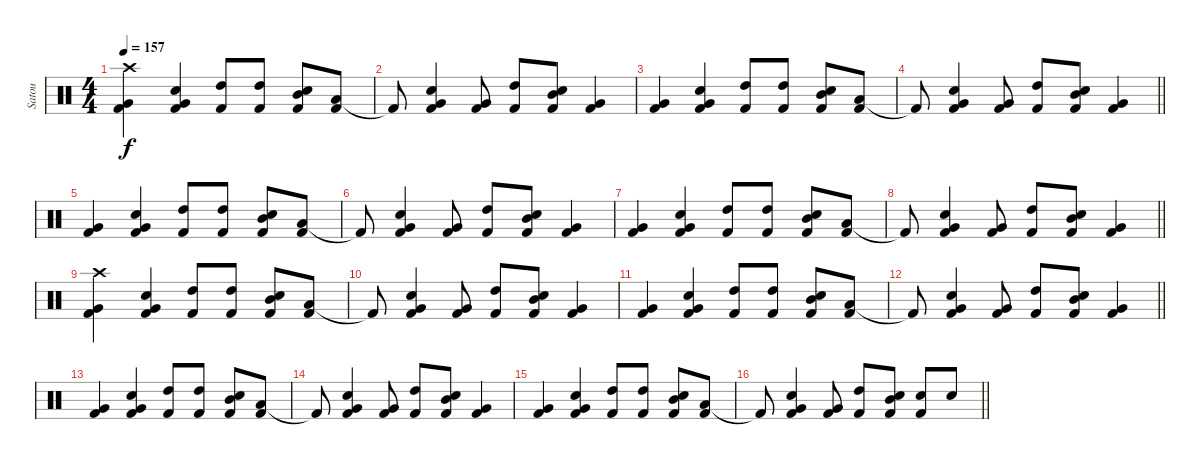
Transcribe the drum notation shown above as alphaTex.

\track ("Satou" "Satou") {instrument percussion}
\staff {score}
\articulation defaults
\ts (4 4)
\tempo 157
\clef neutral
\ks c
("Very Low Tom (hit)" "Kick (hit) 2" "Crash high (hit)").4{dy f} ("Very Low Tom (hit)" "Kick (hit) 2" "Snare (hit) 2").4 ("High Tom (hit)" "Kick (hit) 2").8 ("High Tom (hit)" "Kick (hit) 2").8 ("Mid Tom (hit)" "Kick (hit) 2" "Snare (hit) 2").8 ("Low Tom (hit)" "Kick (hit) 2").8 |
"Kick (hit) 2"{t}.8 ("Very Low Tom (hit)" "Kick (hit) 2" "Snare (hit) 2").4 ("Very Low Tom (hit)" "Kick (hit) 2").8 ("High Tom (hit)" "Kick (hit) 2").8 ("Mid Tom (hit)" "Kick (hit) 2" "Snare (hit) 2").8 ("Very Low Tom (hit)" "Kick (hit) 2").4 |
("Very Low Tom (hit)" "Kick (hit) 2").4 ("Very Low Tom (hit)" "Kick (hit) 2" "Snare (hit) 2").4 ("High Tom (hit)" "Kick (hit) 2").8 ("High Tom (hit)" "Kick (hit) 2").8 ("Mid Tom (hit)" "Kick (hit) 2" "Snare (hit) 2").8 ("Low Tom (hit)" "Kick (hit) 2").8 |
\barLineRight lightlight "Kick (hit) 2"{t}.8
("Very Low Tom (hit)" "Kick (hit) 2" "Snare (hit) 2").4 ("Very Low Tom (hit)" "Kick (hit) 2").8 ("High Tom (hit)" "Kick (hit) 2").8 ("Mid Tom (hit)" "Kick (hit) 2" "Snare (hit) 2").8 ("Very Low Tom (hit)" "Kick (hit) 2").4 |
("Very Low Tom (hit)" "Kick (hit) 2").4 ("Very Low Tom (hit)" "Kick (hit) 2" "Snare (hit) 2").4 ("High Tom (hit)" "Kick (hit) 2").8 ("High Tom (hit)" "Kick (hit) 2").8 ("Mid Tom (hit)" "Kick (hit) 2" "Snare (hit) 2").8 ("Low Tom (hit)" "Kick (hit) 2").8 |
"Kick (hit) 2"{t}.8 ("Very Low Tom (hit)" "Kick (hit) 2" "Snare (hit) 2").4 ("Very Low Tom (hit)" "Kick (hit) 2").8 ("High Tom (hit)" "Kick (hit) 2").8 ("Mid Tom (hit)" "Kick (hit) 2" "Snare (hit) 2").8 ("Very Low Tom (hit)" "Kick (hit) 2").4 |
("Very Low Tom (hit)" "Kick (hit) 2").4 ("Very Low Tom (hit)" "Kick (hit) 2" "Snare (hit) 2").4 ("High Tom (hit)" "Kick (hit) 2").8 ("High Tom (hit)" "Kick (hit) 2").8 ("Mid Tom (hit)" "Kick (hit) 2" "Snare (hit) 2").8 ("Low Tom (hit)" "Kick (hit) 2").8 |
\barLineRight lightlight "Kick (hit) 2"{t}.8
("Very Low Tom (hit)" "Kick (hit) 2" "Snare (hit) 2").4 ("Very Low Tom (hit)" "Kick (hit) 2").8 ("High Tom (hit)" "Kick (hit) 2").8 ("Mid Tom (hit)" "Kick (hit) 2" "Snare (hit) 2").8 ("Very Low Tom (hit)" "Kick (hit) 2").4 |
("Very Low Tom (hit)" "Kick (hit) 2" "Crash high (hit)").4 ("Very Low Tom (hit)" "Kick (hit) 2" "Snare (hit) 2").4 ("High Tom (hit)" "Kick (hit) 2").8 ("High Tom (hit)" "Kick (hit) 2").8 ("Mid Tom (hit)" "Kick (hit) 2" "Snare (hit) 2").8 ("Low Tom (hit)" "Kick (hit) 2").8 |
"Kick (hit) 2"{t}.8 ("Very Low Tom (hit)" "Kick (hit) 2" "Snare (hit) 2").4 ("Very Low Tom (hit)" "Kick (hit) 2").8 ("High Tom (hit)" "Kick (hit) 2").8 ("Mid Tom (hit)" "Kick (hit) 2" "Snare (hit) 2").8 ("Very Low Tom (hit)" "Kick (hit) 2").4 |
("Very Low Tom (hit)" "Kick (hit) 2").4 ("Very Low Tom (hit)" "Kick (hit) 2" "Snare (hit) 2").4 ("High Tom (hit)" "Kick (hit) 2").8 ("High Tom (hit)" "Kick (hit) 2").8 ("Mid Tom (hit)" "Kick (hit) 2" "Snare (hit) 2").8 ("Low Tom (hit)" "Kick (hit) 2").8 |
\barLineRight lightlight "Kick (hit) 2"{t}.8
("Very Low Tom (hit)" "Kick (hit) 2" "Snare (hit) 2").4 ("Very Low Tom (hit)" "Kick (hit) 2").8 ("High Tom (hit)" "Kick (hit) 2").8 ("Mid Tom (hit)" "Kick (hit) 2" "Snare (hit) 2").8 ("Very Low Tom (hit)" "Kick (hit) 2").4 |
("Very Low Tom (hit)" "Kick (hit) 2").4 ("Very Low Tom (hit)" "Kick (hit) 2" "Snare (hit) 2").4 ("High Tom (hit)" "Kick (hit) 2").8 ("High Tom (hit)" "Kick (hit) 2").8 ("Mid Tom (hit)" "Kick (hit) 2" "Snare (hit) 2").8 ("Low Tom (hit)" "Kick (hit) 2").8 |
"Kick (hit) 2"{t}.8 ("Very Low Tom (hit)" "Kick (hit) 2" "Snare (hit) 2").4 ("Very Low Tom (hit)" "Kick (hit) 2").8 ("High Tom (hit)" "Kick (hit) 2").8 ("Mid Tom (hit)" "Kick (hit) 2" "Snare (hit) 2").8 ("Very Low Tom (hit)" "Kick (hit) 2").4 |
("Very Low Tom (hit)" "Kick (hit) 2").4 ("Very Low Tom (hit)" "Kick (hit) 2" "Snare (hit) 2").4 ("High Tom (hit)" "Kick (hit) 2").8 ("High Tom (hit)" "Kick (hit) 2").8 ("Mid Tom (hit)" "Kick (hit) 2" "Snare (hit) 2").8 ("Low Tom (hit)" "Kick (hit) 2").8 |
\barLineRight lightlight "Kick (hit) 2"{t}.8
("Very Low Tom (hit)" "Kick (hit) 2" "Snare (hit) 2").4 ("Very Low Tom (hit)" "Kick (hit) 2").8 ("High Tom (hit)" "Kick (hit) 2").8 ("Mid Tom (hit)" "Kick (hit) 2" "Snare (hit) 2").8 ("Snare (hit) 2" "Kick (hit) 2").8 "Snare (hit) 2".8
